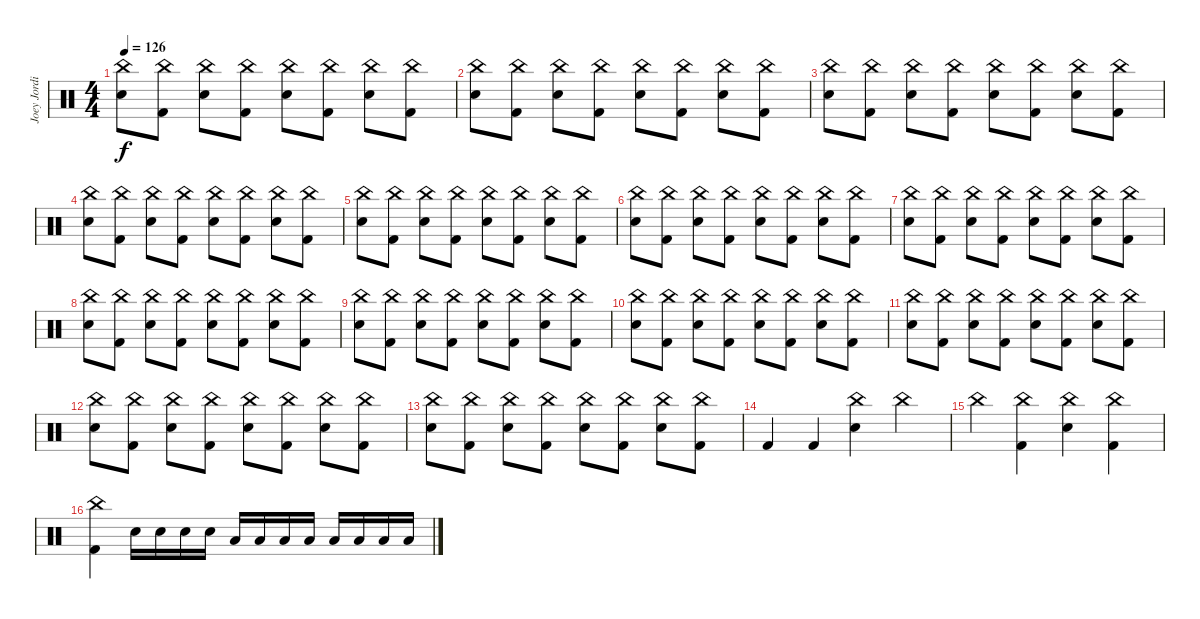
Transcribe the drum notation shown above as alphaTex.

\track ("Joey Jordison" "Joey Jordi") {instrument percussion}
\staff {score}
\articulation defaults
\ts (4 4)
\tempo 126
\clef neutral
\ks c
("China (hit)" "Snare (hit) 2").8{dy f} ("China (hit)" "Kick (hit) 2").8 ("China (hit)" "Snare (hit) 2").8 ("China (hit)" "Kick (hit) 2").8 ("China (hit)" "Snare (hit) 2").8 ("China (hit)" "Kick (hit) 2").8 ("China (hit)" "Snare (hit) 2").8 ("China (hit)" "Kick (hit) 2").8 |
("China (hit)" "Snare (hit) 2").8 ("China (hit)" "Kick (hit) 2").8 ("China (hit)" "Snare (hit) 2").8 ("China (hit)" "Kick (hit) 2").8 ("China (hit)" "Snare (hit) 2").8 ("China (hit)" "Kick (hit) 2").8 ("China (hit)" "Snare (hit) 2").8 ("China (hit)" "Kick (hit) 2").8 |
("China (hit)" "Snare (hit) 2").8 ("China (hit)" "Kick (hit) 2").8 ("China (hit)" "Snare (hit) 2").8 ("China (hit)" "Kick (hit) 2").8 ("China (hit)" "Snare (hit) 2").8 ("China (hit)" "Kick (hit) 2").8 ("China (hit)" "Snare (hit) 2").8 ("China (hit)" "Kick (hit) 2").8 |
("China (hit)" "Snare (hit) 2").8 ("China (hit)" "Kick (hit) 2").8 ("China (hit)" "Snare (hit) 2").8 ("China (hit)" "Kick (hit) 2").8 ("China (hit)" "Snare (hit) 2").8 ("China (hit)" "Kick (hit) 2").8 ("China (hit)" "Snare (hit) 2").8 ("China (hit)" "Kick (hit) 2").8 |
("China (hit)" "Snare (hit) 2").8 ("China (hit)" "Kick (hit) 2").8 ("China (hit)" "Snare (hit) 2").8 ("China (hit)" "Kick (hit) 2").8 ("China (hit)" "Snare (hit) 2").8 ("China (hit)" "Kick (hit) 2").8 ("China (hit)" "Snare (hit) 2").8 ("China (hit)" "Kick (hit) 2").8 |
("China (hit)" "Snare (hit) 2").8 ("China (hit)" "Kick (hit) 2").8 ("China (hit)" "Snare (hit) 2").8 ("China (hit)" "Kick (hit) 2").8 ("China (hit)" "Snare (hit) 2").8 ("China (hit)" "Kick (hit) 2").8 ("China (hit)" "Snare (hit) 2").8 ("China (hit)" "Kick (hit) 2").8 |
("China (hit)" "Snare (hit) 2").8 ("China (hit)" "Kick (hit) 2").8 ("China (hit)" "Snare (hit) 2").8 ("China (hit)" "Kick (hit) 2").8 ("China (hit)" "Snare (hit) 2").8 ("China (hit)" "Kick (hit) 2").8 ("China (hit)" "Snare (hit) 2").8 ("China (hit)" "Kick (hit) 2").8 |
("China (hit)" "Snare (hit) 2").8 ("China (hit)" "Kick (hit) 2").8 ("China (hit)" "Snare (hit) 2").8 ("China (hit)" "Kick (hit) 2").8 ("China (hit)" "Snare (hit) 2").8 ("China (hit)" "Kick (hit) 2").8 ("China (hit)" "Snare (hit) 2").8 ("China (hit)" "Kick (hit) 2").8 |
("China (hit)" "Snare (hit) 2").8 ("China (hit)" "Kick (hit) 2").8 ("China (hit)" "Snare (hit) 2").8 ("China (hit)" "Kick (hit) 2").8 ("China (hit)" "Snare (hit) 2").8 ("China (hit)" "Kick (hit) 2").8 ("China (hit)" "Snare (hit) 2").8 ("China (hit)" "Kick (hit) 2").8 |
("China (hit)" "Snare (hit) 2").8 ("China (hit)" "Kick (hit) 2").8 ("China (hit)" "Snare (hit) 2").8 ("China (hit)" "Kick (hit) 2").8 ("China (hit)" "Snare (hit) 2").8 ("China (hit)" "Kick (hit) 2").8 ("China (hit)" "Snare (hit) 2").8 ("China (hit)" "Kick (hit) 2").8 |
("China (hit)" "Snare (hit) 2").8 ("China (hit)" "Kick (hit) 2").8 ("China (hit)" "Snare (hit) 2").8 ("China (hit)" "Kick (hit) 2").8 ("China (hit)" "Snare (hit) 2").8 ("China (hit)" "Kick (hit) 2").8 ("China (hit)" "Snare (hit) 2").8 ("China (hit)" "Kick (hit) 2").8 |
("China (hit)" "Snare (hit) 2").8 ("China (hit)" "Kick (hit) 2").8 ("China (hit)" "Snare (hit) 2").8 ("China (hit)" "Kick (hit) 2").8 ("China (hit)" "Snare (hit) 2").8 ("China (hit)" "Kick (hit) 2").8 ("China (hit)" "Snare (hit) 2").8 ("China (hit)" "Kick (hit) 2").8 |
("China (hit)" "Snare (hit) 2").8 ("China (hit)" "Kick (hit) 2").8 ("China (hit)" "Snare (hit) 2").8 ("China (hit)" "Kick (hit) 2").8 ("China (hit)" "Snare (hit) 2").8 ("China (hit)" "Kick (hit) 2").8 ("China (hit)" "Snare (hit) 2").8 ("China (hit)" "Kick (hit) 2").8 |
"Kick (hit) 2".4 "Kick (hit) 2".4 ("China (hit)" "Snare (hit) 2").4 "China (hit)".4 |
"China (hit)".4 ("China (hit)" "Kick (hit) 2").4 ("China (hit)" "Snare (hit) 2").4 ("China (hit)" "Kick (hit) 2").4 |
("China (hit)" "Kick (hit) 2").4 "Snare (hit) 2".16 "Snare (hit) 2".16 "Snare (hit) 2".16 "Snare (hit) 2".16 "Low Tom (hit)".16 "Low Tom (hit)".16 "Low Tom (hit)".16 "Low Tom (hit)".16 "Low Tom (hit)".16 "Low Tom (hit)".16 "Low Tom (hit)".16 "Low Tom (hit)".16
